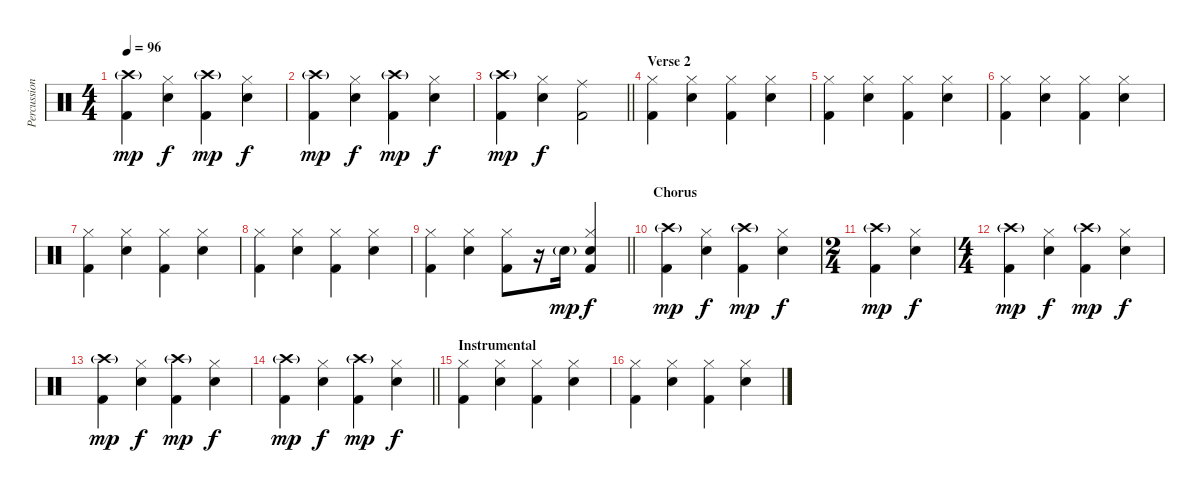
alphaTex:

\track ("Percussion" "Percussion") {instrument percussion}
\staff {score}
\articulation defaults
\ts (4 4)
\tempo 96
\clef neutral
\ks c
("Crash high (hit)"{g} "Kick (hit) 2").4{dy mp} ("Hi-Hat (closed)" "Snare (hit) 2").4{dy f} ("Crash high (hit)"{g} "Kick (hit) 2").4{dy mp} ("Hi-Hat (closed)" "Snare (hit) 2").4{dy f} |
("Crash high (hit)"{g} "Kick (hit) 2").4{dy mp} ("Hi-Hat (closed)" "Snare (hit) 2").4{dy f} ("Crash high (hit)"{g} "Kick (hit) 2").4{dy mp} ("Hi-Hat (closed)" "Snare (hit) 2").4{dy f} |
\barLineRight lightlight
("Crash high (hit)"{g} "Kick (hit) 2").4{dy mp} ("Hi-Hat (closed)" "Snare (hit) 2").4{dy f} ("Ride (middle)" "Kick (hit) 2").2 |
\section ("" "Verse 2")
("Hi-Hat (closed)" "Kick (hit) 2").4 ("Hi-Hat (closed)" "Snare (hit) 2").4 ("Hi-Hat (closed)" "Kick (hit) 2").4 ("Hi-Hat (closed)" "Snare (hit) 2").4 |
("Hi-Hat (closed)" "Kick (hit) 2").4 ("Hi-Hat (closed)" "Snare (hit) 2").4 ("Hi-Hat (closed)" "Kick (hit) 2").4 ("Hi-Hat (closed)" "Snare (hit) 2").4 |
("Hi-Hat (closed)" "Kick (hit) 2").4 ("Hi-Hat (closed)" "Snare (hit) 2").4 ("Hi-Hat (closed)" "Kick (hit) 2").4 ("Hi-Hat (closed)" "Snare (hit) 2").4 |
("Hi-Hat (closed)" "Kick (hit) 2").4 ("Hi-Hat (closed)" "Snare (hit) 2").4 ("Hi-Hat (closed)" "Kick (hit) 2").4 ("Hi-Hat (closed)" "Snare (hit) 2").4 |
("Hi-Hat (closed)" "Kick (hit) 2").4 ("Hi-Hat (closed)" "Snare (hit) 2").4 ("Hi-Hat (closed)" "Kick (hit) 2").4 ("Hi-Hat (closed)" "Snare (hit) 2").4 |
\barLineRight lightlight
("Hi-Hat (closed)" "Kick (hit) 2").4 ("Hi-Hat (closed)" "Snare (hit) 2").4 ("Hi-Hat (closed)" "Kick (hit) 2").8 r.16 "Snare (hit) 2"{g}.16{dy mp} ("Hi-Hat (closed)" "Snare (hit) 2" "Kick (hit) 2").4{dy f} |
\section ("" "Chorus")
("Crash high (hit)"{g} "Kick (hit) 2").4{dy mp} ("Hi-Hat (closed)" "Snare (hit) 2").4{dy f} ("Crash high (hit)"{g} "Kick (hit) 2").4{dy mp} ("Hi-Hat (closed)" "Snare (hit) 2").4{dy f} |
\ts (2 4)
("Crash high (hit)"{g} "Kick (hit) 2").4{dy mp} ("Hi-Hat (closed)" "Snare (hit) 2").4{dy f} |
\ts (4 4)
("Crash high (hit)"{g} "Kick (hit) 2").4{dy mp} ("Hi-Hat (closed)" "Snare (hit) 2").4{dy f} ("Crash high (hit)"{g} "Kick (hit) 2").4{dy mp} ("Hi-Hat (closed)" "Snare (hit) 2").4{dy f} |
("Crash high (hit)"{g} "Kick (hit) 2").4{dy mp} ("Hi-Hat (closed)" "Snare (hit) 2").4{dy f} ("Crash high (hit)"{g} "Kick (hit) 2").4{dy mp} ("Hi-Hat (closed)" "Snare (hit) 2").4{dy f} |
\barLineRight lightlight
("Crash high (hit)"{g} "Kick (hit) 2").4{dy mp} ("Hi-Hat (closed)" "Snare (hit) 2").4{dy f} ("Crash high (hit)"{g} "Kick (hit) 2").4{dy mp} ("Hi-Hat (closed)" "Snare (hit) 2").4{dy f} |
\section ("" "Instrumental")
("Hi-Hat (closed)" "Kick (hit) 2").4 ("Hi-Hat (closed)" "Snare (hit) 2").4 ("Hi-Hat (closed)" "Kick (hit) 2").4 ("Hi-Hat (closed)" "Snare (hit) 2").4 |
("Hi-Hat (closed)" "Kick (hit) 2").4 ("Hi-Hat (closed)" "Snare (hit) 2").4 ("Hi-Hat (closed)" "Kick (hit) 2").4 ("Hi-Hat (closed)" "Snare (hit) 2").4
